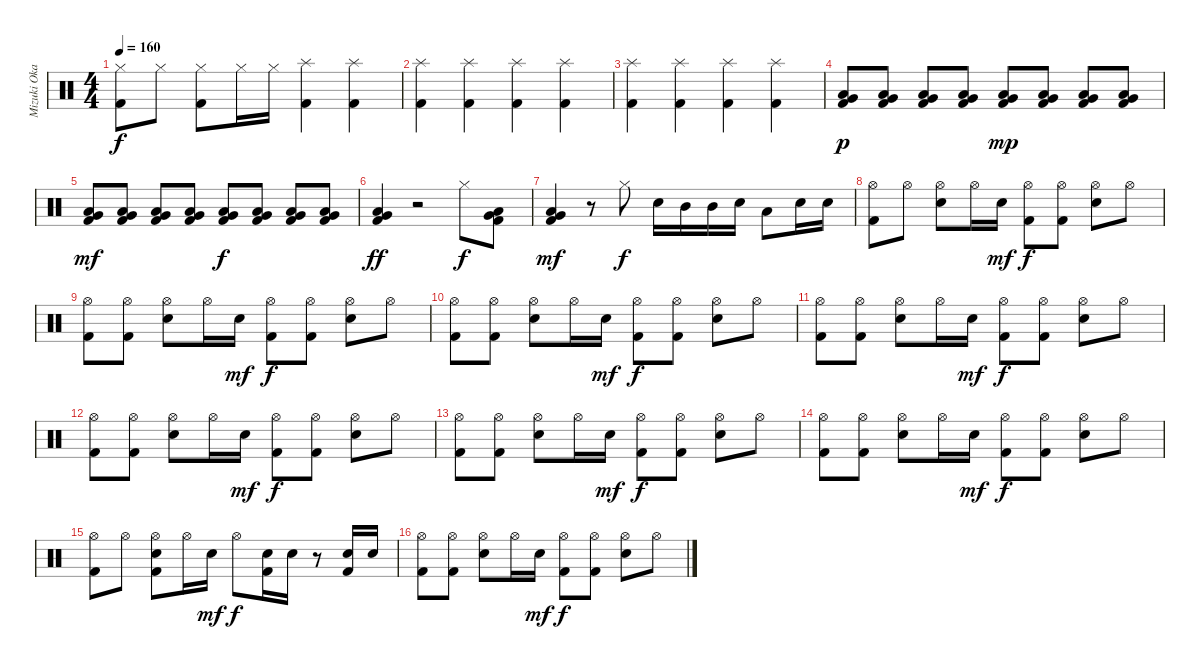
\track ("Mizuki Okajima (Drums)" "Mizuki Oka") {instrument percussion}
\staff {score}
\articulation defaults
\ts (4 4)
\tempo 160
\clef neutral
\ks c
("Hi-Hat (closed)" "Kick (hit) 2").8{dy f} "Hi-Hat (closed)".8 ("Hi-Hat (closed)" "Kick (hit) 2").8 "Hi-Hat (closed)".16 "Hi-Hat (closed)".16 ("Splash (hit)" "Kick (hit) 2").4 ("Splash (hit)" "Kick (hit) 2").4 |
("Splash (hit)" "Kick (hit) 2").4 ("Splash (hit)" "Kick (hit) 2").4 ("Splash (hit)" "Kick (hit) 2").4 ("Splash (hit)" "Kick (hit) 2").4 |
("Splash (hit)" "Kick (hit) 2").4 ("Splash (hit)" "Kick (hit) 2").4 ("Splash (hit)" "Kick (hit) 2").4 ("Splash (hit)" "Kick (hit) 2").4 |
("Low Tom (hit)" "Very Low Tom (hit)" "Kick (hit) 2").8{dy p} ("Low Tom (hit)" "Very Low Tom (hit)" "Kick (hit) 2").8 ("Low Tom (hit)" "Very Low Tom (hit)" "Kick (hit) 2").8 ("Low Tom (hit)" "Very Low Tom (hit)" "Kick (hit) 2").8 ("Low Tom (hit)" "Very Low Tom (hit)" "Kick (hit) 2").8{dy mp} ("Low Tom (hit)" "Very Low Tom (hit)" "Kick (hit) 2").8 ("Low Tom (hit)" "Very Low Tom (hit)" "Kick (hit) 2").8 ("Low Tom (hit)" "Very Low Tom (hit)" "Kick (hit) 2").8 |
("Low Tom (hit)" "Very Low Tom (hit)" "Kick (hit) 2").8{dy mf} ("Low Tom (hit)" "Very Low Tom (hit)" "Kick (hit) 2").8 ("Low Tom (hit)" "Very Low Tom (hit)" "Kick (hit) 2").8 ("Low Tom (hit)" "Very Low Tom (hit)" "Kick (hit) 2").8 ("Low Tom (hit)" "Very Low Tom (hit)" "Kick (hit) 2").8{dy f} ("Low Tom (hit)" "Very Low Tom (hit)" "Kick (hit) 2").8 ("Low Tom (hit)" "Very Low Tom (hit)" "Kick (hit) 2").8 ("Low Tom (hit)" "Very Low Tom (hit)" "Kick (hit) 2").8 |
("Low Tom (hit)" "Very Low Tom (hit)" "Kick (hit) 2").4{dy ff} r.2 "Hi-Hat (closed)".8{dy f} ("Low Tom (hit)" "Very Low Tom (hit)" "Kick (hit) 2").8 |
("Low Tom (hit)" "Very Low Tom (hit)" "Kick (hit) 2").4{dy mf} r.8 "Hi-Hat (closed)".8{dy f} "Snare (hit) 2".16 "Mid Tom (hit)".16 "Mid Tom (hit)".16 "Snare (hit) 2".16 "Low Tom (hit)".8 "Snare (hit) 2".16 "Snare (hit) 2".16 |
("Hi-Hat (open)" "Kick (hit) 2").8 "Hi-Hat (open)".8 ("Hi-Hat (open)" "Snare (hit) 2").8 "Hi-Hat (open)".16 "Snare (hit) 2".16{dy mf} ("Hi-Hat (open)" "Kick (hit) 2").8{dy f} ("Hi-Hat (open)" "Kick (hit) 2").8 ("Hi-Hat (open)" "Snare (hit) 2").8 "Hi-Hat (open)".8 |
("Hi-Hat (open)" "Kick (hit) 2").8 ("Hi-Hat (open)" "Kick (hit) 2").8 ("Hi-Hat (open)" "Snare (hit) 2").8 "Hi-Hat (open)".16 "Snare (hit) 2".16{dy mf} ("Hi-Hat (open)" "Kick (hit) 2").8{dy f} ("Hi-Hat (open)" "Kick (hit) 2").8 ("Hi-Hat (open)" "Snare (hit) 2").8 "Hi-Hat (open)".8 |
("Hi-Hat (open)" "Kick (hit) 2").8 ("Hi-Hat (open)" "Kick (hit) 2").8 ("Hi-Hat (open)" "Snare (hit) 2").8 "Hi-Hat (open)".16 "Snare (hit) 2".16{dy mf} ("Hi-Hat (open)" "Kick (hit) 2").8{dy f} ("Hi-Hat (open)" "Kick (hit) 2").8 ("Hi-Hat (open)" "Snare (hit) 2").8 "Hi-Hat (open)".8 |
("Hi-Hat (open)" "Kick (hit) 2").8 ("Hi-Hat (open)" "Kick (hit) 2").8 ("Hi-Hat (open)" "Snare (hit) 2").8 "Hi-Hat (open)".16 "Snare (hit) 2".16{dy mf} ("Hi-Hat (open)" "Kick (hit) 2").8{dy f} ("Hi-Hat (open)" "Kick (hit) 2").8 ("Hi-Hat (open)" "Snare (hit) 2").8 "Hi-Hat (open)".8 |
("Hi-Hat (open)" "Kick (hit) 2").8 ("Hi-Hat (open)" "Kick (hit) 2").8 ("Hi-Hat (open)" "Snare (hit) 2").8 "Hi-Hat (open)".16 "Snare (hit) 2".16{dy mf} ("Hi-Hat (open)" "Kick (hit) 2").8{dy f} ("Hi-Hat (open)" "Kick (hit) 2").8 ("Hi-Hat (open)" "Snare (hit) 2").8 "Hi-Hat (open)".8 |
("Hi-Hat (open)" "Kick (hit) 2").8 ("Hi-Hat (open)" "Kick (hit) 2").8 ("Hi-Hat (open)" "Snare (hit) 2").8 "Hi-Hat (open)".16 "Snare (hit) 2".16{dy mf} ("Hi-Hat (open)" "Kick (hit) 2").8{dy f} ("Hi-Hat (open)" "Kick (hit) 2").8 ("Hi-Hat (open)" "Snare (hit) 2").8 "Hi-Hat (open)".8 |
("Hi-Hat (open)" "Kick (hit) 2").8 ("Hi-Hat (open)" "Kick (hit) 2").8 ("Hi-Hat (open)" "Snare (hit) 2").8 "Hi-Hat (open)".16 "Snare (hit) 2".16{dy mf} ("Hi-Hat (open)" "Kick (hit) 2").8{dy f} ("Hi-Hat (open)" "Kick (hit) 2").8 ("Hi-Hat (open)" "Snare (hit) 2").8 "Hi-Hat (open)".8 |
("Hi-Hat (open)" "Kick (hit) 2").8 "Hi-Hat (open)".8 ("Hi-Hat (open)" "Snare (hit) 2" "Kick (hit) 2").8 "Hi-Hat (open)".16 "Snare (hit) 2".16{dy mf} "Hi-Hat (open)".8{dy f} ("Snare (hit) 2" "Kick (hit) 2").16 "Snare (hit) 2".16 r.8 ("Snare (hit) 2" "Kick (hit) 2").16 "Snare (hit) 2".16 |
("Hi-Hat (open)" "Kick (hit) 2").8 ("Hi-Hat (open)" "Kick (hit) 2").8 ("Hi-Hat (open)" "Snare (hit) 2").8 "Hi-Hat (open)".16 "Snare (hit) 2".16{dy mf} ("Hi-Hat (open)" "Kick (hit) 2").8{dy f} ("Hi-Hat (open)" "Kick (hit) 2").8 ("Hi-Hat (open)" "Snare (hit) 2").8 "Hi-Hat (open)".8
